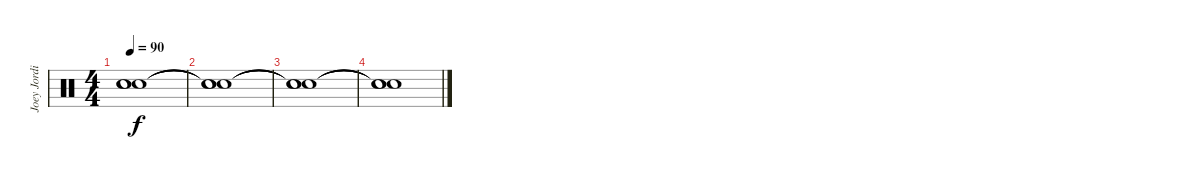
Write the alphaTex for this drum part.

\track ("Joey Jordison" "Joey Jordi") {instrument percussion}
\staff {score}
\articulation defaults
\ts (4 4)
\tempo 90
\clef neutral
\ks c
("Snare (hit)"{t} "Snare (hit)"{t} "Snare (hit)"{t}).1{dy f} |
("Snare (hit)"{t} "Snare (hit)"{t} "Snare (hit)"{t}).1 |
("Snare (hit)"{t} "Snare (hit)"{t} "Snare (hit)"{t}).1 |
("Snare (hit)"{t} "Snare (hit)"{t} "Snare (hit)"{t}).1
